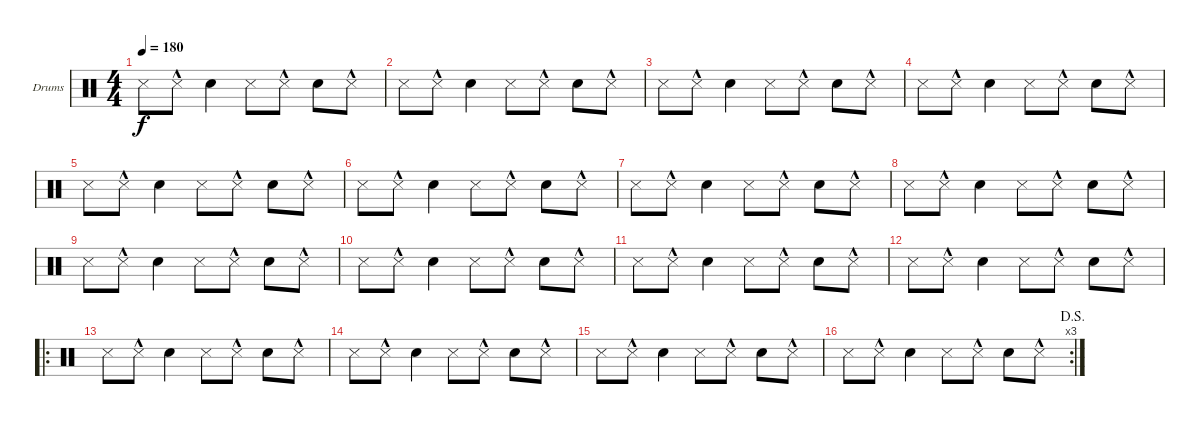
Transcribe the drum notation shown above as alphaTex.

\defaultSystemsLayout 4
\bracketExtendMode groupsimilarinstruments
\firstSystemTrackNameOrientation horizontal
\otherSystemsTrackNameOrientation horizontal
\track ("Drumkit" "Drums") {instrument percussion}
\staff {score}
\articulation defaults
\ts (4 4)
\tempo 180
\clef neutral
\scale
0.25
\ks c "Snare (side stick) 3".8{dy f} "Snare (side stick) 3"{hac}.8 "Snare (hit) 2".4 "Snare (side stick) 3".8 "Snare (side stick) 3"{hac}.8 "Snare (hit) 2".8 "Snare (side stick) 3"{hac}.8
|
\scale
0.25 "Snare (side stick) 3".8 "Snare (side stick) 3"{hac}.8 "Snare (hit) 2".4 "Snare (side stick) 3".8 "Snare (side stick) 3"{hac}.8 "Snare (hit) 2".8 "Snare (side stick) 3"{hac}.8 |
\scale
0.25 "Snare (side stick) 3".8 "Snare (side stick) 3"{hac}.8 "Snare (hit) 2".4 "Snare (side stick) 3".8 "Snare (side stick) 3"{hac}.8 "Snare (hit) 2".8 "Snare (side stick) 3"{hac}.8 |
\scale
0.25 "Snare (side stick) 3".8 "Snare (side stick) 3"{hac}.8 "Snare (hit) 2".4 "Snare (side stick) 3".8 "Snare (side stick) 3"{hac}.8 "Snare (hit) 2".8 "Snare (side stick) 3"{hac}.8 |
\scale
0.25 "Snare (side stick) 3".8 "Snare (side stick) 3"{hac}.8 "Snare (hit) 2".4 "Snare (side stick) 3".8 "Snare (side stick) 3"{hac}.8 "Snare (hit) 2".8 "Snare (side stick) 3"{hac}.8 |
\scale
0.25 "Snare (side stick) 3".8 "Snare (side stick) 3"{hac}.8 "Snare (hit) 2".4 "Snare (side stick) 3".8 "Snare (side stick) 3"{hac}.8 "Snare (hit) 2".8 "Snare (side stick) 3"{hac}.8 |
\scale
0.25 "Snare (side stick) 3".8 "Snare (side stick) 3"{hac}.8 "Snare (hit) 2".4 "Snare (side stick) 3".8 "Snare (side stick) 3"{hac}.8 "Snare (hit) 2".8 "Snare (side stick) 3"{hac}.8 |
\scale
0.25 "Snare (side stick) 3".8 "Snare (side stick) 3"{hac}.8 "Snare (hit) 2".4 "Snare (side stick) 3".8 "Snare (side stick) 3"{hac}.8 "Snare (hit) 2".8 "Snare (side stick) 3"{hac}.8 |
\scale
0.25 "Snare (side stick) 3".8 "Snare (side stick) 3"{hac}.8 "Snare (hit) 2".4 "Snare (side stick) 3".8 "Snare (side stick) 3"{hac}.8 "Snare (hit) 2".8 "Snare (side stick) 3"{hac}.8 |
\scale
0.25 "Snare (side stick) 3".8 "Snare (side stick) 3"{hac}.8 "Snare (hit) 2".4 "Snare (side stick) 3".8 "Snare (side stick) 3"{hac}.8 "Snare (hit) 2".8 "Snare (side stick) 3"{hac}.8 |
\scale
0.25 "Snare (side stick) 3".8 "Snare (side stick) 3"{hac}.8 "Snare (hit) 2".4 "Snare (side stick) 3".8 "Snare (side stick) 3"{hac}.8 "Snare (hit) 2".8 "Snare (side stick) 3"{hac}.8 |
\scale
0.25 "Snare (side stick) 3".8 "Snare (side stick) 3"{hac}.8 "Snare (hit) 2".4 "Snare (side stick) 3".8 "Snare (side stick) 3"{hac}.8 "Snare (hit) 2".8 "Snare (side stick) 3"{hac}.8 |
\ro
\scale
0.262136 "Snare (side stick) 3".8 "Snare (side stick) 3"{hac}.8 "Snare (hit) 2".4 "Snare (side stick) 3".8 "Snare (side stick) 3"{hac}.8 "Snare (hit) 2".8 "Snare (side stick) 3"{hac}.8 |
\scale
0.242718 "Snare (side stick) 3".8 "Snare (side stick) 3"{hac}.8 "Snare (hit) 2".4 "Snare (side stick) 3".8 "Snare (side stick) 3"{hac}.8 "Snare (hit) 2".8 "Snare (side stick) 3"{hac}.8 |
\scale
0.242718 "Snare (side stick) 3".8 "Snare (side stick) 3"{hac}.8 "Snare (hit) 2".4 "Snare (side stick) 3".8 "Snare (side stick) 3"{hac}.8 "Snare (hit) 2".8 "Snare (side stick) 3"{hac}.8 |
\rc 3
\jump dalsegno
\scale
0.252427 "Snare (side stick) 3".8 "Snare (side stick) 3"{hac}.8 "Snare (hit) 2".4 "Snare (side stick) 3".8 "Snare (side stick) 3"{hac}.8 "Snare (hit) 2".8 "Snare (side stick) 3"{hac}.8
